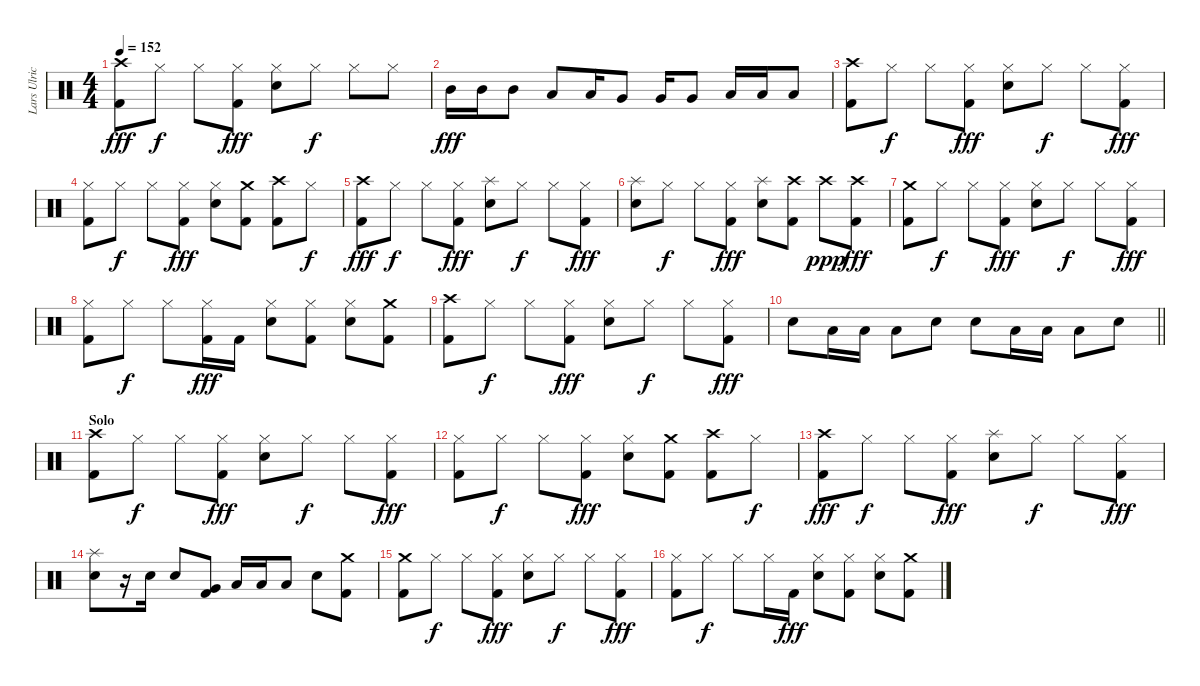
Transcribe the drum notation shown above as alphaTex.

\track ("Lars Ulrich" "Lars Ulric") {instrument percussion}
\staff {score}
\articulation defaults
\ts (4 4)
\tempo 152
\clef neutral
\ks c
("Crash high (hit)" "Kick (hit) 2").8{dy fff} "Hi-Hat (closed)".8{dy f} "Hi-Hat (closed)".8 ("Hi-Hat (closed)" "Kick (hit) 2").8{dy fff} ("Hi-Hat (closed)" "Snare (hit) 2").8 "Hi-Hat (closed)".8{dy f} "Hi-Hat (closed)".8 "Hi-Hat (closed)".8 |
"Mid Tom (hit)".16{dy fff} "Mid Tom (hit)".16 "Mid Tom (hit)".8 "Low Tom (hit)".8 "Low Tom (hit)".16 "Very Low Tom (hit)".8 "Very Low Tom (hit)".16 "Very Low Tom (hit)".8 "Low Floor Tom (hit)".16 "Low Floor Tom (hit)".16 "Low Floor Tom (hit)".8 |
("Crash high (hit)" "Kick (hit) 2").8 "Hi-Hat (closed)".8{dy f} "Hi-Hat (closed)".8 ("Hi-Hat (closed)" "Kick (hit) 2").8{dy fff} ("Hi-Hat (closed)" "Snare (hit) 2").8 "Hi-Hat (closed)".8{dy f} "Hi-Hat (closed)".8 ("Hi-Hat (closed)" "Kick (hit) 2").8{dy fff} |
("Hi-Hat (closed)" "Kick (hit) 2").8 "Hi-Hat (closed)".8{dy f} "Hi-Hat (closed)".8 ("Hi-Hat (closed)" "Kick (hit) 2").8{dy fff} ("Hi-Hat (closed)" "Snare (hit) 2").8 ("Crash medium (hit)" "Kick (hit) 2").8 ("Crash high (hit)" "Kick (hit) 2").8 "Hi-Hat (closed)".8{dy f} |
("Crash high (hit)" "Kick (hit) 2").8{dy fff} "Hi-Hat (closed)".8{dy f} "Hi-Hat (closed)".8 ("Hi-Hat (closed)" "Kick (hit) 2").8{dy fff} ("Splash (hit)" "Snare (hit) 2").8 "Hi-Hat (closed)".8{dy f} "Hi-Hat (closed)".8 ("Hi-Hat (closed)" "Kick (hit) 2").8{dy fff} |
("Splash (hit)" "Snare (hit) 2").8 "Hi-Hat (closed)".8{dy f} "Hi-Hat (closed)".8 ("Hi-Hat (closed)" "Kick (hit) 2").8{dy fff} ("Splash (hit)" "Snare (hit) 2").8 ("Crash high (hit)" "Kick (hit) 2").8 "Crash high (hit)".8{dy ppp} ("Crash high (hit)" "Kick (hit) 2").8{dy fff} |
("Crash medium (hit)" "Kick (hit) 2").8 "Hi-Hat (closed)".8{dy f} "Hi-Hat (closed)".8 ("Hi-Hat (closed)" "Kick (hit) 2").8{dy fff} ("Hi-Hat (closed)" "Snare (hit) 2").8 "Hi-Hat (closed)".8{dy f} "Hi-Hat (closed)".8 ("Hi-Hat (closed)" "Kick (hit) 2").8{dy fff} |
("Hi-Hat (closed)" "Kick (hit) 2").8 "Hi-Hat (closed)".8{dy f} "Hi-Hat (closed)".8 ("Hi-Hat (closed)" "Kick (hit) 2").16{dy fff} "Kick (hit) 2".16 ("Hi-Hat (closed)" "Snare (hit) 2").8 ("Hi-Hat (closed)" "Kick (hit) 2").8 ("Hi-Hat (closed)" "Snare (hit) 2").8 ("Crash medium (hit)" "Kick (hit) 2").8 |
("Crash high (hit)" "Kick (hit) 2").8 "Hi-Hat (closed)".8{dy f} "Hi-Hat (closed)".8 ("Hi-Hat (closed)" "Kick (hit) 2").8{dy fff} ("Hi-Hat (closed)" "Snare (hit) 2").8 "Hi-Hat (closed)".8{dy f} "Hi-Hat (closed)".8 ("Hi-Hat (closed)" "Kick (hit) 2").8{dy fff} |
\barLineRight lightlight "Snare (hit) 2".8 "Low Tom (hit)".16 "Low Tom (hit)".16 "Low Tom (hit)".8 "Snare (hit) 2".8 "Snare (hit) 2".8 "Low Tom (hit)".16 "Low Tom (hit)".16 "Low Tom (hit)".8 "Snare (hit) 2".8
|
\section ("" "Solo")
("Crash high (hit)" "Kick (hit) 2").8 "Hi-Hat (closed)".8{dy f} "Hi-Hat (closed)".8 ("Hi-Hat (closed)" "Kick (hit) 2").8{dy fff} ("Hi-Hat (closed)" "Snare (hit) 2").8 "Hi-Hat (closed)".8{dy f} "Hi-Hat (closed)".8 ("Hi-Hat (closed)" "Kick (hit) 2").8{dy fff} |
("Hi-Hat (closed)" "Kick (hit) 2").8 "Hi-Hat (closed)".8{dy f} "Hi-Hat (closed)".8 ("Hi-Hat (closed)" "Kick (hit) 2").8{dy fff} ("Hi-Hat (closed)" "Snare (hit) 2").8 ("Crash medium (hit)" "Kick (hit) 2").8 ("Crash high (hit)" "Kick (hit) 2").8 "Hi-Hat (closed)".8{dy f} |
("Crash high (hit)" "Kick (hit) 2").8{dy fff} "Hi-Hat (closed)".8{dy f} "Hi-Hat (closed)".8 ("Hi-Hat (closed)" "Kick (hit) 2").8{dy fff} ("Splash (hit)" "Snare (hit) 2").8 "Hi-Hat (closed)".8{dy f} "Hi-Hat (closed)".8 ("Hi-Hat (closed)" "Kick (hit) 2").8{dy fff} |
("Splash (hit)" "Snare (hit) 2").8 r.16 "Snare (hit) 2".16 "Snare (hit) 2".8 ("Very Low Tom (hit)" "Kick (hit) 2").8 "Low Tom (hit)".16 "Low Tom (hit)".16 "Low Tom (hit)".8 "Snare (hit) 2".8 ("Crash medium (hit)" "Kick (hit) 2").8 |
("Crash medium (hit)" "Kick (hit) 2").8 "Hi-Hat (closed)".8{dy f} "Hi-Hat (closed)".8 ("Hi-Hat (closed)" "Kick (hit) 2").8{dy fff} ("Hi-Hat (closed)" "Snare (hit) 2").8 "Hi-Hat (closed)".8{dy f} "Hi-Hat (closed)".8 ("Hi-Hat (closed)" "Kick (hit) 2").8{dy fff} |
("Hi-Hat (closed)" "Kick (hit) 2").8 "Hi-Hat (closed)".8{dy f} "Hi-Hat (closed)".8 "Hi-Hat (closed)".16 "Kick (hit) 2".16{dy fff} ("Hi-Hat (closed)" "Snare (hit) 2").8 ("Hi-Hat (closed)" "Kick (hit) 2").8 ("Hi-Hat (closed)" "Snare (hit) 2").8 ("Crash medium (hit)" "Kick (hit) 2").8
